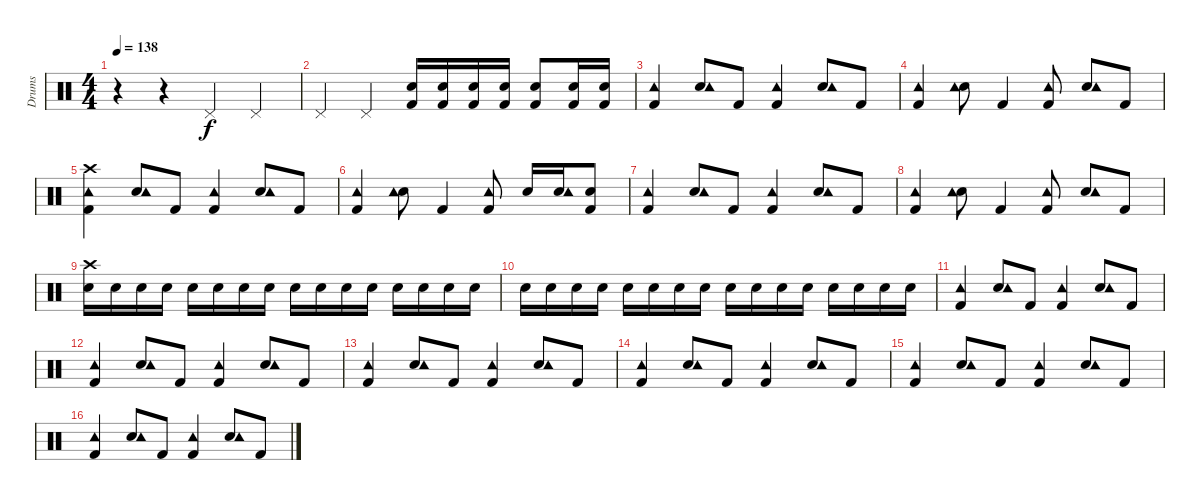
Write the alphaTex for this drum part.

\track ("Drums" "Drums") {instrument percussion}
\staff {score}
\articulation defaults
\ts (4 4)
\tempo 138
\clef neutral
\ks c
r.4{dy f} r.4 "Pedal Hi-Hat (hit)".4 "Pedal Hi-Hat (hit)".4 |
"Pedal Hi-Hat (hit)".4 "Pedal Hi-Hat (hit)".4 ("Kick (hit) 2" "Snare (hit) 2").16 ("Kick (hit) 2" "Snare (hit) 2").16 ("Kick (hit) 2" "Snare (hit) 2").16 ("Kick (hit) 2" "Snare (hit) 2").16 ("Kick (hit) 2" "Snare (hit) 2").8 ("Kick (hit) 2" "Snare (hit) 2").16 ("Kick (hit) 2" "Snare (hit) 2").16 |
("Kick (hit) 2" "Tambourine (hit)").4 ("Snare (hit) 2" "Tambourine (hit)").8 "Kick (hit) 2".8 ("Kick (hit) 2" "Tambourine (hit)").4 ("Snare (hit) 2" "Tambourine (hit)").8 "Kick (hit) 2".8 |
("Kick (hit) 2" "Tambourine (hit)").4 ("Snare (hit) 2" "Tambourine (hit)").8 "Kick (hit) 2".4 ("Kick (hit) 2" "Tambourine (hit)").8 ("Snare (hit) 2" "Tambourine (hit)").8 "Kick (hit) 2".8 |
("Kick (hit) 2" "Tambourine (hit)" "Crash high (hit)").4 ("Snare (hit) 2" "Tambourine (hit)").8 "Kick (hit) 2".8 ("Kick (hit) 2" "Tambourine (hit)").4 ("Snare (hit) 2" "Tambourine (hit)").8 "Kick (hit) 2".8 |
("Kick (hit) 2" "Tambourine (hit)").4 ("Snare (hit) 2" "Tambourine (hit)").8 "Kick (hit) 2".4 ("Kick (hit) 2" "Tambourine (hit)").8 "Snare (hit) 2".16 ("Snare (hit) 2" "Tambourine (hit)").16 ("Kick (hit) 2" "Snare (hit) 2").8 |
("Kick (hit) 2" "Tambourine (hit)").4 ("Snare (hit) 2" "Tambourine (hit)").8 "Kick (hit) 2".8 ("Kick (hit) 2" "Tambourine (hit)").4 ("Snare (hit) 2" "Tambourine (hit)").8 "Kick (hit) 2".8 |
("Kick (hit) 2" "Tambourine (hit)").4 ("Snare (hit) 2" "Tambourine (hit)").8 "Kick (hit) 2".4 ("Kick (hit) 2" "Tambourine (hit)").8 ("Snare (hit) 2" "Tambourine (hit)").8 "Kick (hit) 2".8 |
("Snare (hit) 2" "Crash high (hit)").16 "Snare (hit) 2".16 "Snare (hit) 2".16 "Snare (hit) 2".16 "Snare (hit) 2".16 "Snare (hit) 2".16 "Snare (hit) 2".16 "Snare (hit) 2".16 "Snare (hit) 2".16 "Snare (hit) 2".16 "Snare (hit) 2".16 "Snare (hit) 2".16 "Snare (hit) 2".16 "Snare (hit) 2".16 "Snare (hit) 2".16 "Snare (hit) 2".16 |
"Snare (hit) 2".16 "Snare (hit) 2".16 "Snare (hit) 2".16 "Snare (hit) 2".16 "Snare (hit) 2".16 "Snare (hit) 2".16 "Snare (hit) 2".16 "Snare (hit) 2".16 "Snare (hit) 2".16 "Snare (hit) 2".16 "Snare (hit) 2".16 "Snare (hit) 2".16 "Snare (hit) 2".16 "Snare (hit) 2".16 "Snare (hit) 2".16 "Snare (hit) 2".16 |
("Kick (hit) 2" "Tambourine (hit)").4 ("Snare (hit) 2" "Tambourine (hit)").8 "Kick (hit) 2".8 ("Kick (hit) 2" "Tambourine (hit)").4 ("Snare (hit) 2" "Tambourine (hit)").8 "Kick (hit) 2".8 |
("Kick (hit) 2" "Tambourine (hit)").4 ("Snare (hit) 2" "Tambourine (hit)").8 "Kick (hit) 2".8 ("Kick (hit) 2" "Tambourine (hit)").4 ("Snare (hit) 2" "Tambourine (hit)").8 "Kick (hit) 2".8 |
("Kick (hit) 2" "Tambourine (hit)").4 ("Snare (hit) 2" "Tambourine (hit)").8 "Kick (hit) 2".8 ("Kick (hit) 2" "Tambourine (hit)").4 ("Snare (hit) 2" "Tambourine (hit)").8 "Kick (hit) 2".8 |
("Kick (hit) 2" "Tambourine (hit)").4 ("Snare (hit) 2" "Tambourine (hit)").8 "Kick (hit) 2".8 ("Kick (hit) 2" "Tambourine (hit)").4 ("Snare (hit) 2" "Tambourine (hit)").8 "Kick (hit) 2".8 |
("Kick (hit) 2" "Tambourine (hit)").4 ("Snare (hit) 2" "Tambourine (hit)").8 "Kick (hit) 2".8 ("Kick (hit) 2" "Tambourine (hit)").4 ("Snare (hit) 2" "Tambourine (hit)").8 "Kick (hit) 2".8 |
("Kick (hit) 2" "Tambourine (hit)").4 ("Snare (hit) 2" "Tambourine (hit)").8 "Kick (hit) 2".8 ("Kick (hit) 2" "Tambourine (hit)").4 ("Snare (hit) 2" "Tambourine (hit)").8 "Kick (hit) 2".8
